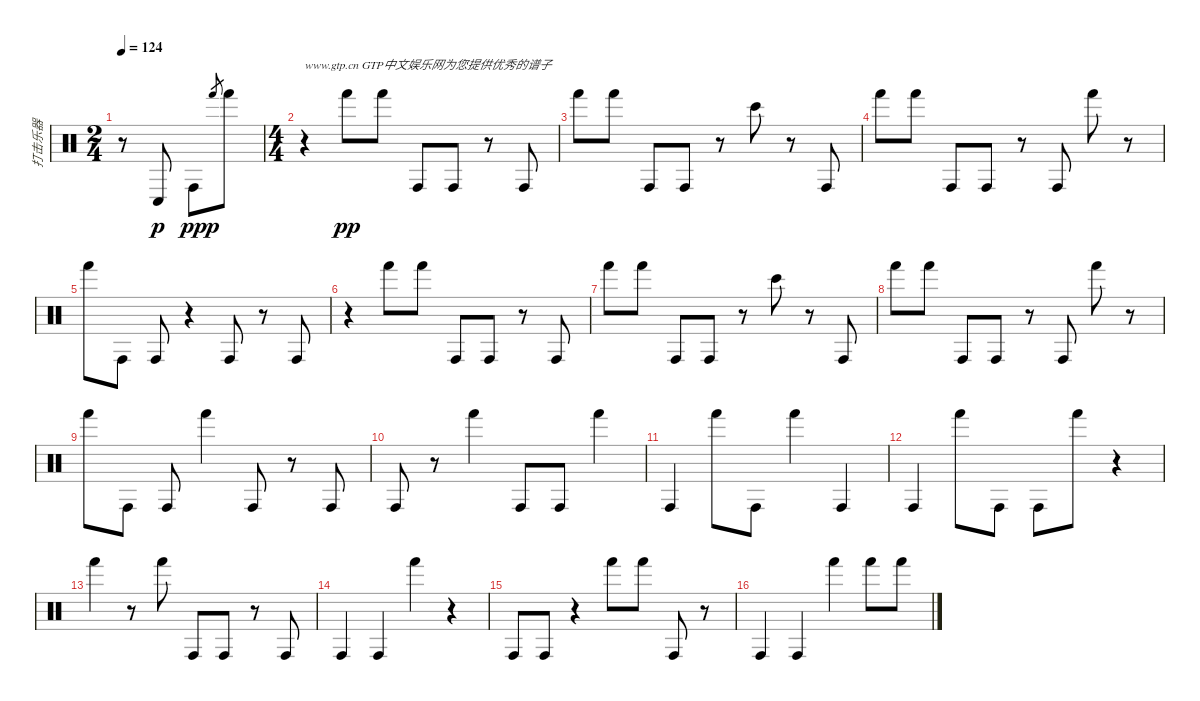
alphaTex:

\track ("打击乐器" "打击乐器") {instrument percussion}
\staff {score}
\articulation defaults
\ts (2 4)
\tempo 124
\clef neutral
\ks c
r.8{dy p} "Conga low (hit)".8 "Conga high (hit)".8{dy pp} "Hand (hit)".8{gr dy p} "Hand (hit)".8 |
\ts (4 4)
r.4{txt "www.gtp.cn GTP中文娱乐网为您提供优秀的谱子"} "Hand (hit)".8{dy pp} "Hand (hit)".8 "Conga high (hit)".8 "Conga high (hit)".8 r.8 "Conga high (hit)".8 |
"Hand (hit)".8 "Hand (hit)".8 "Conga high (hit)".8 "Conga high (hit)".8 r.8 "Bongo High (hit)".8 r.8 "Conga high (hit)".8 |
"Hand (hit)".8 "Hand (hit)".8 "Conga high (hit)".8 "Conga high (hit)".8 r.8 "Conga high (hit)".8 "Hand (hit)".8 r.8 |
"Hand (hit)".8 "Conga high (hit)".8 "Conga high (hit)".8 r.4 "Conga high (hit)".8 r.8 "Conga high (hit)".8 |
r.4 "Hand (hit)".8 "Hand (hit)".8 "Conga high (hit)".8 "Conga high (hit)".8 r.8 "Conga high (hit)".8 |
"Hand (hit)".8 "Hand (hit)".8 "Conga high (hit)".8 "Conga high (hit)".8 r.8 "Bongo High (hit)".8 r.8 "Conga high (hit)".8 |
"Hand (hit)".8 "Hand (hit)".8 "Conga high (hit)".8 "Conga high (hit)".8 r.8 "Conga high (hit)".8 "Hand (hit)".8 r.8 |
"Hand (hit)".8 "Conga high (hit)".8 "Conga high (hit)".8 "Hand (hit)".4 "Conga high (hit)".8 r.8 "Conga high (hit)".8 |
"Conga high (hit)".8 r.8 "Hand (hit)".4 "Conga high (hit)".8 "Conga high (hit)".8 "Hand (hit)".4 |
"Conga high (hit)".4 "Hand (hit)".8 "Conga high (hit)".8 "Hand (hit)".4 "Conga high (hit)".4 |
"Conga high (hit)".4 "Hand (hit)".8 "Conga high (hit)".8 "Conga high (hit)".8 "Hand (hit)".8 r.4 |
"Hand (hit)".4 r.8 "Hand (hit)".8 "Conga high (hit)".8 "Conga high (hit)".8 r.8 "Conga high (hit)".8 |
"Conga high (hit)".4 "Conga high (hit)".4 "Hand (hit)".4 r.4 |
"Conga high (hit)".8 "Conga high (hit)".8 r.4 "Hand (hit)".8 "Hand (hit)".8 "Conga high (hit)".8 r.8 |
"Conga high (hit)".4 "Conga high (hit)".4 "Hand (hit)".4 "Hand (hit)".8 "Hand (hit)".8
